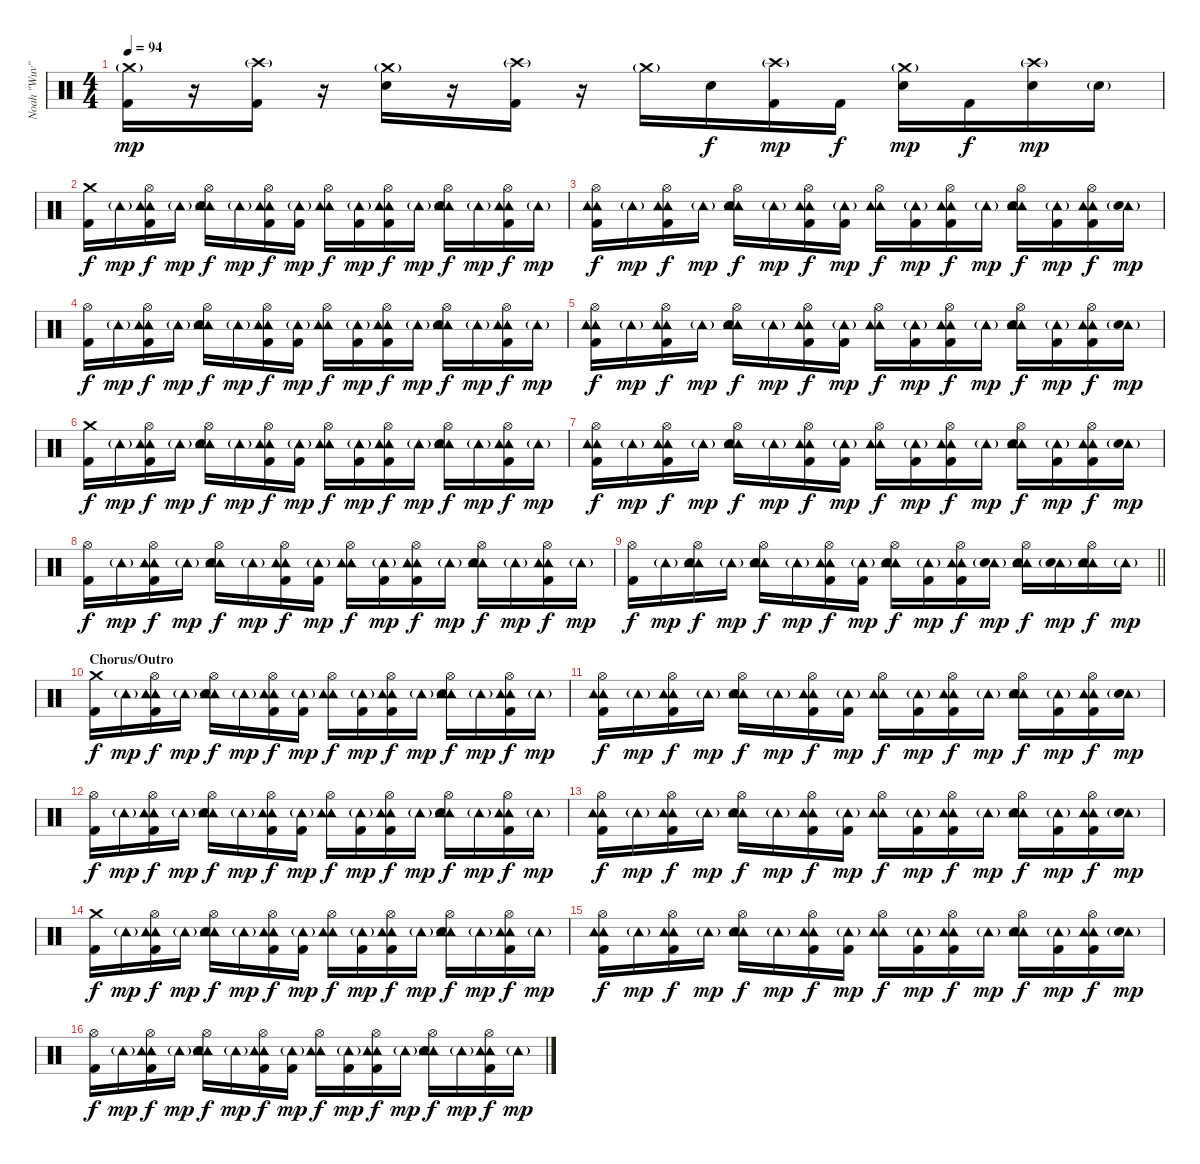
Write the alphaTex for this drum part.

\track ("Noah \"Wuv\" Bernardo" "Noah \"Wuv\"") {instrument percussion}
\staff {score}
\articulation defaults
\ts (4 4)
\tempo 94
\clef neutral
\ks c
("Crash medium (hit)"{g} "Kick (hit) 2").16{dy mp} r.16 ("Crash high (hit)"{g} "Kick (hit) 2").16 r.16 ("Crash medium (hit)"{g} "Electric Snare (hit)").16 r.16 ("Crash high (hit)"{g} "Kick (hit) 2").16 r.16 "Crash medium (hit)"{g}.16 "Electric Snare (hit)".16{dy f} ("Crash high (hit)"{g} "Kick (hit) 2").16{dy mp} "Kick (hit) 2".16{dy f} ("Crash medium (hit)"{g} "Electric Snare (hit)").16{dy mp} "Kick (hit) 2".16{dy f} ("Crash high (hit)"{g} "Electric Snare (hit)").16{dy mp} "Electric Snare (hit)"{g}.16 |
("Crash medium (hit)" "Kick (hit) 2").16{dy f} "Tambourine (hit)"{g}.16{dy mp} ("Hi-Hat (open)" "Tambourine (hit)" "Tambourine (hit)" "Kick (hit) 2").16{dy f} "Tambourine (hit)"{g}.16{dy mp} ("Hi-Hat (open)" "Tambourine (hit)" "Tambourine (hit)" "Electric Snare (hit)").16{dy f} "Tambourine (hit)"{g}.16{dy mp} ("Hi-Hat (open)" "Tambourine (hit)" "Tambourine (hit)" "Kick (hit) 2").16{dy f} ("Tambourine (hit)"{g} "Kick (hit) 2").16{dy mp} ("Hi-Hat (open)" "Tambourine (hit)" "Tambourine (hit)").16{dy f} ("Tambourine (hit)"{g} "Kick (hit) 2").16{dy mp} ("Hi-Hat (open)" "Tambourine (hit)" "Tambourine (hit)" "Kick (hit) 2").16{dy f} "Tambourine (hit)"{g}.16{dy mp} ("Hi-Hat (open)" "Tambourine (hit)" "Tambourine (hit)" "Electric Snare (hit)").16{dy f} "Tambourine (hit)"{g}.16{dy mp} ("Hi-Hat (open)" "Tambourine (hit)" "Tambourine (hit)" "Kick (hit) 2").16{dy f} "Tambourine (hit)"{g}.16{dy mp} |
("Hi-Hat (open)" "Tambourine (hit)" "Tambourine (hit)" "Kick (hit) 2").16{dy f} "Tambourine (hit)"{g}.16{dy mp} ("Hi-Hat (open)" "Tambourine (hit)" "Tambourine (hit)" "Kick (hit) 2").16{dy f} "Tambourine (hit)"{g}.16{dy mp} ("Hi-Hat (open)" "Tambourine (hit)" "Tambourine (hit)" "Electric Snare (hit)").16{dy f} "Tambourine (hit)"{g}.16{dy mp} ("Hi-Hat (open)" "Tambourine (hit)" "Tambourine (hit)" "Kick (hit) 2").16{dy f} ("Tambourine (hit)"{g} "Kick (hit) 2").16{dy mp} ("Hi-Hat (open)" "Tambourine (hit)" "Tambourine (hit)").16{dy f} ("Tambourine (hit)"{g} "Kick (hit) 2").16{dy mp} ("Hi-Hat (open)" "Tambourine (hit)" "Tambourine (hit)" "Kick (hit) 2").16{dy f} "Tambourine (hit)"{g}.16{dy mp} ("Hi-Hat (open)" "Tambourine (hit)" "Tambourine (hit)" "Electric Snare (hit)").16{dy f} ("Tambourine (hit)"{g} "Kick (hit) 2").16{dy mp} ("Hi-Hat (open)" "Tambourine (hit)" "Tambourine (hit)" "Kick (hit) 2").16{dy f} ("Tambourine (hit)"{g} "Electric Snare (hit)").16{dy mp} |
("Hi-Hat (open)" "Kick (hit) 2").16{dy f} "Tambourine (hit)"{g}.16{dy mp} ("Hi-Hat (open)" "Tambourine (hit)" "Tambourine (hit)" "Kick (hit) 2").16{dy f} "Tambourine (hit)"{g}.16{dy mp} ("Hi-Hat (open)" "Tambourine (hit)" "Tambourine (hit)" "Electric Snare (hit)").16{dy f} "Tambourine (hit)"{g}.16{dy mp} ("Hi-Hat (open)" "Tambourine (hit)" "Tambourine (hit)" "Kick (hit) 2").16{dy f} ("Tambourine (hit)"{g} "Kick (hit) 2").16{dy mp} ("Hi-Hat (open)" "Tambourine (hit)" "Tambourine (hit)").16{dy f} ("Tambourine (hit)"{g} "Kick (hit) 2").16{dy mp} ("Hi-Hat (open)" "Tambourine (hit)" "Tambourine (hit)" "Kick (hit) 2").16{dy f} "Tambourine (hit)"{g}.16{dy mp} ("Hi-Hat (open)" "Tambourine (hit)" "Tambourine (hit)" "Electric Snare (hit)").16{dy f} "Tambourine (hit)"{g}.16{dy mp} ("Hi-Hat (open)" "Tambourine (hit)" "Tambourine (hit)" "Kick (hit) 2").16{dy f} "Tambourine (hit)"{g}.16{dy mp} |
("Hi-Hat (open)" "Tambourine (hit)" "Tambourine (hit)" "Kick (hit) 2").16{dy f} "Tambourine (hit)"{g}.16{dy mp} ("Hi-Hat (open)" "Tambourine (hit)" "Tambourine (hit)" "Kick (hit) 2").16{dy f} "Tambourine (hit)"{g}.16{dy mp} ("Hi-Hat (open)" "Tambourine (hit)" "Tambourine (hit)" "Electric Snare (hit)").16{dy f} "Tambourine (hit)"{g}.16{dy mp} ("Hi-Hat (open)" "Tambourine (hit)" "Tambourine (hit)" "Kick (hit) 2").16{dy f} ("Tambourine (hit)"{g} "Kick (hit) 2").16{dy mp} ("Hi-Hat (open)" "Tambourine (hit)" "Tambourine (hit)").16{dy f} ("Tambourine (hit)"{g} "Kick (hit) 2").16{dy mp} ("Hi-Hat (open)" "Tambourine (hit)" "Tambourine (hit)" "Kick (hit) 2").16{dy f} "Tambourine (hit)"{g}.16{dy mp} ("Hi-Hat (open)" "Tambourine (hit)" "Tambourine (hit)" "Electric Snare (hit)").16{dy f} ("Tambourine (hit)"{g} "Kick (hit) 2").16{dy mp} ("Hi-Hat (open)" "Tambourine (hit)" "Tambourine (hit)" "Kick (hit) 2").16{dy f} ("Tambourine (hit)"{g} "Electric Snare (hit)").16{dy mp} |
("Crash medium (hit)" "Kick (hit) 2").16{dy f} "Tambourine (hit)"{g}.16{dy mp} ("Hi-Hat (open)" "Tambourine (hit)" "Tambourine (hit)" "Kick (hit) 2").16{dy f} "Tambourine (hit)"{g}.16{dy mp} ("Hi-Hat (open)" "Tambourine (hit)" "Tambourine (hit)" "Electric Snare (hit)").16{dy f} "Tambourine (hit)"{g}.16{dy mp} ("Hi-Hat (open)" "Tambourine (hit)" "Tambourine (hit)" "Kick (hit) 2").16{dy f} ("Tambourine (hit)"{g} "Kick (hit) 2").16{dy mp} ("Hi-Hat (open)" "Tambourine (hit)" "Tambourine (hit)").16{dy f} ("Tambourine (hit)"{g} "Kick (hit) 2").16{dy mp} ("Hi-Hat (open)" "Tambourine (hit)" "Tambourine (hit)" "Kick (hit) 2").16{dy f} "Tambourine (hit)"{g}.16{dy mp} ("Hi-Hat (open)" "Tambourine (hit)" "Tambourine (hit)" "Electric Snare (hit)").16{dy f} "Tambourine (hit)"{g}.16{dy mp} ("Hi-Hat (open)" "Tambourine (hit)" "Tambourine (hit)" "Kick (hit) 2").16{dy f} "Tambourine (hit)"{g}.16{dy mp} |
("Hi-Hat (open)" "Tambourine (hit)" "Tambourine (hit)" "Kick (hit) 2").16{dy f} "Tambourine (hit)"{g}.16{dy mp} ("Hi-Hat (open)" "Tambourine (hit)" "Tambourine (hit)" "Kick (hit) 2").16{dy f} "Tambourine (hit)"{g}.16{dy mp} ("Hi-Hat (open)" "Tambourine (hit)" "Tambourine (hit)" "Electric Snare (hit)").16{dy f} "Tambourine (hit)"{g}.16{dy mp} ("Hi-Hat (open)" "Tambourine (hit)" "Tambourine (hit)" "Kick (hit) 2").16{dy f} ("Tambourine (hit)"{g} "Kick (hit) 2").16{dy mp} ("Hi-Hat (open)" "Tambourine (hit)" "Tambourine (hit)").16{dy f} ("Tambourine (hit)"{g} "Kick (hit) 2").16{dy mp} ("Hi-Hat (open)" "Tambourine (hit)" "Tambourine (hit)" "Kick (hit) 2").16{dy f} "Tambourine (hit)"{g}.16{dy mp} ("Hi-Hat (open)" "Tambourine (hit)" "Tambourine (hit)" "Electric Snare (hit)").16{dy f} ("Tambourine (hit)"{g} "Kick (hit) 2").16{dy mp} ("Hi-Hat (open)" "Tambourine (hit)" "Tambourine (hit)" "Kick (hit) 2").16{dy f} ("Tambourine (hit)"{g} "Electric Snare (hit)").16{dy mp} |
("Hi-Hat (open)" "Kick (hit) 2").16{dy f} "Tambourine (hit)"{g}.16{dy mp} ("Hi-Hat (open)" "Tambourine (hit)" "Tambourine (hit)" "Kick (hit) 2").16{dy f} "Tambourine (hit)"{g}.16{dy mp} ("Hi-Hat (open)" "Tambourine (hit)" "Tambourine (hit)" "Electric Snare (hit)").16{dy f} "Tambourine (hit)"{g}.16{dy mp} ("Hi-Hat (open)" "Tambourine (hit)" "Tambourine (hit)" "Kick (hit) 2").16{dy f} ("Tambourine (hit)"{g} "Kick (hit) 2").16{dy mp} ("Hi-Hat (open)" "Tambourine (hit)" "Tambourine (hit)").16{dy f} ("Tambourine (hit)"{g} "Kick (hit) 2").16{dy mp} ("Hi-Hat (open)" "Tambourine (hit)" "Tambourine (hit)" "Kick (hit) 2").16{dy f} "Tambourine (hit)"{g}.16{dy mp} ("Hi-Hat (open)" "Tambourine (hit)" "Tambourine (hit)" "Electric Snare (hit)").16{dy f} "Tambourine (hit)"{g}.16{dy mp} ("Hi-Hat (open)" "Tambourine (hit)" "Tambourine (hit)" "Kick (hit) 2").16{dy f} "Tambourine (hit)"{g}.16{dy mp} |
\barLineRight lightlight
("Hi-Hat (open)" "Kick (hit) 2").16{dy f} "Tambourine (hit)"{g}.16{dy mp} ("Hi-Hat (open)" "Tambourine (hit)" "Tambourine (hit)" "Electric Snare (hit)").16{dy f} "Tambourine (hit)"{g}.16{dy mp} ("Hi-Hat (open)" "Tambourine (hit)" "Tambourine (hit)" "Electric Snare (hit)").16{dy f} "Tambourine (hit)"{g}.16{dy mp} ("Hi-Hat (open)" "Tambourine (hit)" "Tambourine (hit)" "Kick (hit) 2").16{dy f} ("Tambourine (hit)"{g} "Kick (hit) 2").16{dy mp} ("Hi-Hat (open)" "Tambourine (hit)" "Tambourine (hit)" "Electric Snare (hit)").16{dy f} ("Tambourine (hit)"{g} "Kick (hit) 2").16{dy mp} ("Hi-Hat (open)" "Tambourine (hit)" "Tambourine (hit)" "Kick (hit) 2").16{dy f} ("Tambourine (hit)"{g} "Electric Snare (hit)").16{dy mp} ("Hi-Hat (open)" "Tambourine (hit)" "Tambourine (hit)" "Electric Snare (hit)").16{dy f} ("Tambourine (hit)"{g} "Electric Snare (hit)").16{dy mp} ("Hi-Hat (open)" "Tambourine (hit)" "Tambourine (hit)" "Electric Snare (hit)").16{dy f} "Tambourine (hit)"{g}.16{dy mp} |
\section ("" "Chorus/Outro")
("Crash medium (hit)" "Kick (hit) 2").16{dy f} "Tambourine (hit)"{g}.16{dy mp} ("Hi-Hat (open)" "Tambourine (hit)" "Tambourine (hit)" "Kick (hit) 2").16{dy f} "Tambourine (hit)"{g}.16{dy mp} ("Hi-Hat (open)" "Tambourine (hit)" "Tambourine (hit)" "Electric Snare (hit)").16{dy f} "Tambourine (hit)"{g}.16{dy mp} ("Hi-Hat (open)" "Tambourine (hit)" "Tambourine (hit)" "Kick (hit) 2").16{dy f} ("Tambourine (hit)"{g} "Kick (hit) 2").16{dy mp} ("Hi-Hat (open)" "Tambourine (hit)" "Tambourine (hit)").16{dy f} ("Tambourine (hit)"{g} "Kick (hit) 2").16{dy mp} ("Hi-Hat (open)" "Tambourine (hit)" "Tambourine (hit)" "Kick (hit) 2").16{dy f} "Tambourine (hit)"{g}.16{dy mp} ("Hi-Hat (open)" "Tambourine (hit)" "Tambourine (hit)" "Electric Snare (hit)").16{dy f} "Tambourine (hit)"{g}.16{dy mp} ("Hi-Hat (open)" "Tambourine (hit)" "Tambourine (hit)" "Kick (hit) 2").16{dy f} "Tambourine (hit)"{g}.16{dy mp} |
("Hi-Hat (open)" "Tambourine (hit)" "Tambourine (hit)" "Kick (hit) 2").16{dy f} "Tambourine (hit)"{g}.16{dy mp} ("Hi-Hat (open)" "Tambourine (hit)" "Tambourine (hit)" "Kick (hit) 2").16{dy f} "Tambourine (hit)"{g}.16{dy mp} ("Hi-Hat (open)" "Tambourine (hit)" "Tambourine (hit)" "Electric Snare (hit)").16{dy f} "Tambourine (hit)"{g}.16{dy mp} ("Hi-Hat (open)" "Tambourine (hit)" "Tambourine (hit)" "Kick (hit) 2").16{dy f} ("Tambourine (hit)"{g} "Kick (hit) 2").16{dy mp} ("Hi-Hat (open)" "Tambourine (hit)" "Tambourine (hit)").16{dy f} ("Tambourine (hit)"{g} "Kick (hit) 2").16{dy mp} ("Hi-Hat (open)" "Tambourine (hit)" "Tambourine (hit)" "Kick (hit) 2").16{dy f} "Tambourine (hit)"{g}.16{dy mp} ("Hi-Hat (open)" "Tambourine (hit)" "Tambourine (hit)" "Electric Snare (hit)").16{dy f} ("Tambourine (hit)"{g} "Kick (hit) 2").16{dy mp} ("Hi-Hat (open)" "Tambourine (hit)" "Tambourine (hit)" "Kick (hit) 2").16{dy f} ("Tambourine (hit)"{g} "Electric Snare (hit)").16{dy mp} |
("Hi-Hat (open)" "Kick (hit) 2").16{dy f} "Tambourine (hit)"{g}.16{dy mp} ("Hi-Hat (open)" "Tambourine (hit)" "Tambourine (hit)" "Kick (hit) 2").16{dy f} "Tambourine (hit)"{g}.16{dy mp} ("Hi-Hat (open)" "Tambourine (hit)" "Tambourine (hit)" "Electric Snare (hit)").16{dy f} "Tambourine (hit)"{g}.16{dy mp} ("Hi-Hat (open)" "Tambourine (hit)" "Tambourine (hit)" "Kick (hit) 2").16{dy f} ("Tambourine (hit)"{g} "Kick (hit) 2").16{dy mp} ("Hi-Hat (open)" "Tambourine (hit)" "Tambourine (hit)").16{dy f} ("Tambourine (hit)"{g} "Kick (hit) 2").16{dy mp} ("Hi-Hat (open)" "Tambourine (hit)" "Tambourine (hit)" "Kick (hit) 2").16{dy f} "Tambourine (hit)"{g}.16{dy mp} ("Hi-Hat (open)" "Tambourine (hit)" "Tambourine (hit)" "Electric Snare (hit)").16{dy f} "Tambourine (hit)"{g}.16{dy mp} ("Hi-Hat (open)" "Tambourine (hit)" "Tambourine (hit)" "Kick (hit) 2").16{dy f} "Tambourine (hit)"{g}.16{dy mp} |
("Hi-Hat (open)" "Tambourine (hit)" "Tambourine (hit)" "Kick (hit) 2").16{dy f} "Tambourine (hit)"{g}.16{dy mp} ("Hi-Hat (open)" "Tambourine (hit)" "Tambourine (hit)" "Kick (hit) 2").16{dy f} "Tambourine (hit)"{g}.16{dy mp} ("Hi-Hat (open)" "Tambourine (hit)" "Tambourine (hit)" "Electric Snare (hit)").16{dy f} "Tambourine (hit)"{g}.16{dy mp} ("Hi-Hat (open)" "Tambourine (hit)" "Tambourine (hit)" "Kick (hit) 2").16{dy f} ("Tambourine (hit)"{g} "Kick (hit) 2").16{dy mp} ("Hi-Hat (open)" "Tambourine (hit)" "Tambourine (hit)").16{dy f} ("Tambourine (hit)"{g} "Kick (hit) 2").16{dy mp} ("Hi-Hat (open)" "Tambourine (hit)" "Tambourine (hit)" "Kick (hit) 2").16{dy f} "Tambourine (hit)"{g}.16{dy mp} ("Hi-Hat (open)" "Tambourine (hit)" "Tambourine (hit)" "Electric Snare (hit)").16{dy f} ("Tambourine (hit)"{g} "Kick (hit) 2").16{dy mp} ("Hi-Hat (open)" "Tambourine (hit)" "Tambourine (hit)" "Kick (hit) 2").16{dy f} ("Tambourine (hit)"{g} "Electric Snare (hit)").16{dy mp} |
("Crash medium (hit)" "Kick (hit) 2").16{dy f} "Tambourine (hit)"{g}.16{dy mp} ("Hi-Hat (open)" "Tambourine (hit)" "Tambourine (hit)" "Kick (hit) 2").16{dy f} "Tambourine (hit)"{g}.16{dy mp} ("Hi-Hat (open)" "Tambourine (hit)" "Tambourine (hit)" "Electric Snare (hit)").16{dy f} "Tambourine (hit)"{g}.16{dy mp} ("Hi-Hat (open)" "Tambourine (hit)" "Tambourine (hit)" "Kick (hit) 2").16{dy f} ("Tambourine (hit)"{g} "Kick (hit) 2").16{dy mp} ("Hi-Hat (open)" "Tambourine (hit)" "Tambourine (hit)").16{dy f} ("Tambourine (hit)"{g} "Kick (hit) 2").16{dy mp} ("Hi-Hat (open)" "Tambourine (hit)" "Tambourine (hit)" "Kick (hit) 2").16{dy f} "Tambourine (hit)"{g}.16{dy mp} ("Hi-Hat (open)" "Tambourine (hit)" "Tambourine (hit)" "Electric Snare (hit)").16{dy f} "Tambourine (hit)"{g}.16{dy mp} ("Hi-Hat (open)" "Tambourine (hit)" "Tambourine (hit)" "Kick (hit) 2").16{dy f} "Tambourine (hit)"{g}.16{dy mp} |
("Hi-Hat (open)" "Tambourine (hit)" "Tambourine (hit)" "Kick (hit) 2").16{dy f} "Tambourine (hit)"{g}.16{dy mp} ("Hi-Hat (open)" "Tambourine (hit)" "Tambourine (hit)" "Kick (hit) 2").16{dy f} "Tambourine (hit)"{g}.16{dy mp} ("Hi-Hat (open)" "Tambourine (hit)" "Tambourine (hit)" "Electric Snare (hit)").16{dy f} "Tambourine (hit)"{g}.16{dy mp} ("Hi-Hat (open)" "Tambourine (hit)" "Tambourine (hit)" "Kick (hit) 2").16{dy f} ("Tambourine (hit)"{g} "Kick (hit) 2").16{dy mp} ("Hi-Hat (open)" "Tambourine (hit)" "Tambourine (hit)").16{dy f} ("Tambourine (hit)"{g} "Kick (hit) 2").16{dy mp} ("Hi-Hat (open)" "Tambourine (hit)" "Tambourine (hit)" "Kick (hit) 2").16{dy f} "Tambourine (hit)"{g}.16{dy mp} ("Hi-Hat (open)" "Tambourine (hit)" "Tambourine (hit)" "Electric Snare (hit)").16{dy f} ("Tambourine (hit)"{g} "Kick (hit) 2").16{dy mp} ("Hi-Hat (open)" "Tambourine (hit)" "Tambourine (hit)" "Kick (hit) 2").16{dy f} ("Tambourine (hit)"{g} "Electric Snare (hit)").16{dy mp} |
("Hi-Hat (open)" "Kick (hit) 2").16{dy f} "Tambourine (hit)"{g}.16{dy mp} ("Hi-Hat (open)" "Tambourine (hit)" "Tambourine (hit)" "Kick (hit) 2").16{dy f} "Tambourine (hit)"{g}.16{dy mp} ("Hi-Hat (open)" "Tambourine (hit)" "Tambourine (hit)" "Electric Snare (hit)").16{dy f} "Tambourine (hit)"{g}.16{dy mp} ("Hi-Hat (open)" "Tambourine (hit)" "Tambourine (hit)" "Kick (hit) 2").16{dy f} ("Tambourine (hit)"{g} "Kick (hit) 2").16{dy mp} ("Hi-Hat (open)" "Tambourine (hit)" "Tambourine (hit)").16{dy f} ("Tambourine (hit)"{g} "Kick (hit) 2").16{dy mp} ("Hi-Hat (open)" "Tambourine (hit)" "Tambourine (hit)" "Kick (hit) 2").16{dy f} "Tambourine (hit)"{g}.16{dy mp} ("Hi-Hat (open)" "Tambourine (hit)" "Tambourine (hit)" "Electric Snare (hit)").16{dy f} "Tambourine (hit)"{g}.16{dy mp} ("Hi-Hat (open)" "Tambourine (hit)" "Tambourine (hit)" "Kick (hit) 2").16{dy f} "Tambourine (hit)"{g}.16{dy mp}
